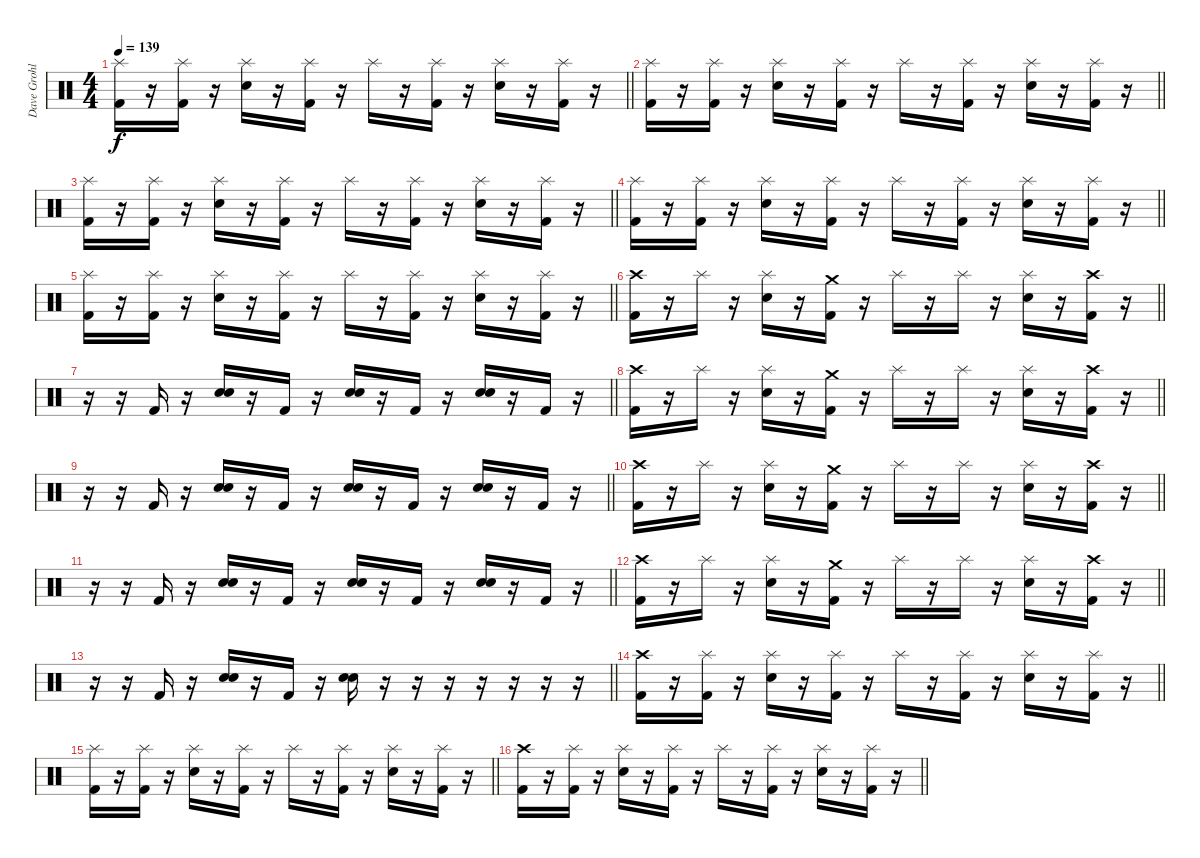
\track ("Dave Grohl" "Dave Grohl") {instrument percussion}
\staff {score}
\articulation defaults
\ts (4 4)
\tempo 139
\clef neutral
\barLineRight lightlight
\ks c
("Splash (hit)" "Kick (hit) 2").16{dy f} r.16 ("Splash (hit)" "Kick (hit) 2").16 r.16 ("Splash (hit)" "Electric Snare (hit)").16 r.16 ("Splash (hit)" "Kick (hit) 2").16 r.16 "Splash (hit)".16 r.16 ("Splash (hit)" "Kick (hit) 2").16 r.16 ("Splash (hit)" "Electric Snare (hit)").16 r.16 ("Splash (hit)" "Kick (hit) 2").16 r.16 |
\barLineRight lightlight
("Splash (hit)" "Kick (hit) 2").16 r.16 ("Splash (hit)" "Kick (hit) 2").16 r.16 ("Splash (hit)" "Electric Snare (hit)").16 r.16 ("Splash (hit)" "Kick (hit) 2").16 r.16 "Splash (hit)".16 r.16 ("Splash (hit)" "Kick (hit) 2").16 r.16 ("Splash (hit)" "Electric Snare (hit)").16 r.16 ("Splash (hit)" "Kick (hit) 2").16 r.16 |
\barLineRight lightlight
("Splash (hit)" "Kick (hit) 2").16 r.16 ("Splash (hit)" "Kick (hit) 2").16 r.16 ("Splash (hit)" "Electric Snare (hit)").16 r.16 ("Splash (hit)" "Kick (hit) 2").16 r.16 "Splash (hit)".16 r.16 ("Splash (hit)" "Kick (hit) 2").16 r.16 ("Splash (hit)" "Electric Snare (hit)").16 r.16 ("Splash (hit)" "Kick (hit) 2").16 r.16 |
\barLineRight lightlight
("Splash (hit)" "Kick (hit) 2").16 r.16 ("Splash (hit)" "Kick (hit) 2").16 r.16 ("Splash (hit)" "Electric Snare (hit)").16 r.16 ("Splash (hit)" "Kick (hit) 2").16 r.16 "Splash (hit)".16 r.16 ("Splash (hit)" "Kick (hit) 2").16 r.16 ("Splash (hit)" "Electric Snare (hit)").16 r.16 ("Splash (hit)" "Kick (hit) 2").16 r.16 |
\barLineRight lightlight
("Splash (hit)" "Kick (hit) 2").16 r.16 ("Splash (hit)" "Kick (hit) 2").16 r.16 ("Splash (hit)" "Electric Snare (hit)").16 r.16 ("Splash (hit)" "Kick (hit) 2").16 r.16 "Splash (hit)".16 r.16 ("Splash (hit)" "Kick (hit) 2").16 r.16 ("Splash (hit)" "Electric Snare (hit)").16 r.16 ("Splash (hit)" "Kick (hit) 2").16 r.16 |
\barLineRight lightlight
("Crash high (hit)" "Kick (hit) 2").16 r.16 "Splash (hit)".16 r.16 ("Splash (hit)" "Electric Snare (hit)").16 r.16 ("Crash medium (hit)" "Kick (hit) 2").16 r.16 "Splash (hit)".16 r.16 "Splash (hit)".16 r.16 ("Splash (hit)" "Electric Snare (hit)").16 r.16 ("Crash high (hit)" "Kick (hit) 2").16 r.16 |
\barLineRight lightlight
r.16 r.16 "Kick (hit) 2".16 r.16 ("Electric Snare (hit)" "Electric Snare (hit)").16 r.16 "Kick (hit) 2".16 r.16 ("Electric Snare (hit)" "Electric Snare (hit)").16 r.16 "Kick (hit) 2".16 r.16 ("Electric Snare (hit)" "Electric Snare (hit)").16 r.16 "Kick (hit) 2".16 r.16 |
\barLineRight lightlight
("Crash high (hit)" "Kick (hit) 2").16 r.16 "Splash (hit)".16 r.16 ("Splash (hit)" "Electric Snare (hit)").16 r.16 ("Crash medium (hit)" "Kick (hit) 2").16 r.16 "Splash (hit)".16 r.16 "Splash (hit)".16 r.16 ("Splash (hit)" "Electric Snare (hit)").16 r.16 ("Crash high (hit)" "Kick (hit) 2").16 r.16 |
\barLineRight lightlight
r.16 r.16 "Kick (hit) 2".16 r.16 ("Electric Snare (hit)" "Electric Snare (hit)").16 r.16 "Kick (hit) 2".16 r.16 ("Electric Snare (hit)" "Electric Snare (hit)").16 r.16 "Kick (hit) 2".16 r.16 ("Electric Snare (hit)" "Electric Snare (hit)").16 r.16 "Kick (hit) 2".16 r.16 |
\barLineRight lightlight
("Crash high (hit)" "Kick (hit) 2").16 r.16 "Splash (hit)".16 r.16 ("Splash (hit)" "Electric Snare (hit)").16 r.16 ("Crash medium (hit)" "Kick (hit) 2").16 r.16 "Splash (hit)".16 r.16 "Splash (hit)".16 r.16 ("Splash (hit)" "Electric Snare (hit)").16 r.16 ("Crash high (hit)" "Kick (hit) 2").16 r.16 |
\barLineRight lightlight
r.16 r.16 "Kick (hit) 2".16 r.16 ("Electric Snare (hit)" "Electric Snare (hit)").16 r.16 "Kick (hit) 2".16 r.16 ("Electric Snare (hit)" "Electric Snare (hit)").16 r.16 "Kick (hit) 2".16 r.16 ("Electric Snare (hit)" "Electric Snare (hit)").16 r.16 "Kick (hit) 2".16 r.16 |
\barLineRight lightlight
("Crash high (hit)" "Kick (hit) 2").16 r.16 "Splash (hit)".16 r.16 ("Splash (hit)" "Electric Snare (hit)").16 r.16 ("Crash medium (hit)" "Kick (hit) 2").16 r.16 "Splash (hit)".16 r.16 "Splash (hit)".16 r.16 ("Splash (hit)" "Electric Snare (hit)").16 r.16 ("Crash high (hit)" "Kick (hit) 2").16 r.16 |
\barLineRight lightlight
r.16 r.16 "Kick (hit) 2".16 r.16 ("Electric Snare (hit)" "Electric Snare (hit)").16 r.16 "Kick (hit) 2".16 r.16 ("Electric Snare (hit)" "Electric Snare (hit)").16 r.16 r.16 r.16 r.16 r.16 r.16 r.16 |
\barLineRight lightlight
("Crash high (hit)" "Kick (hit) 2").16 r.16 ("Splash (hit)" "Kick (hit) 2").16 r.16 ("Splash (hit)" "Electric Snare (hit)").16 r.16 ("Splash (hit)" "Kick (hit) 2").16 r.16 "Splash (hit)".16 r.16 ("Splash (hit)" "Kick (hit) 2").16 r.16 ("Splash (hit)" "Electric Snare (hit)").16 r.16 ("Splash (hit)" "Kick (hit) 2").16 r.16 |
\barLineRight lightlight
("Splash (hit)" "Kick (hit) 2").16 r.16 ("Splash (hit)" "Kick (hit) 2").16 r.16 ("Splash (hit)" "Electric Snare (hit)").16 r.16 ("Splash (hit)" "Kick (hit) 2").16 r.16 "Splash (hit)".16 r.16 ("Splash (hit)" "Kick (hit) 2").16 r.16 ("Splash (hit)" "Electric Snare (hit)").16 r.16 ("Splash (hit)" "Kick (hit) 2").16 r.16 |
\barLineRight lightlight
("Crash high (hit)" "Kick (hit) 2").16 r.16 ("Splash (hit)" "Kick (hit) 2").16 r.16 ("Splash (hit)" "Electric Snare (hit)").16 r.16 ("Splash (hit)" "Kick (hit) 2").16 r.16 "Splash (hit)".16 r.16 ("Splash (hit)" "Kick (hit) 2").16 r.16 ("Splash (hit)" "Electric Snare (hit)").16 r.16 ("Splash (hit)" "Kick (hit) 2").16 r.16
